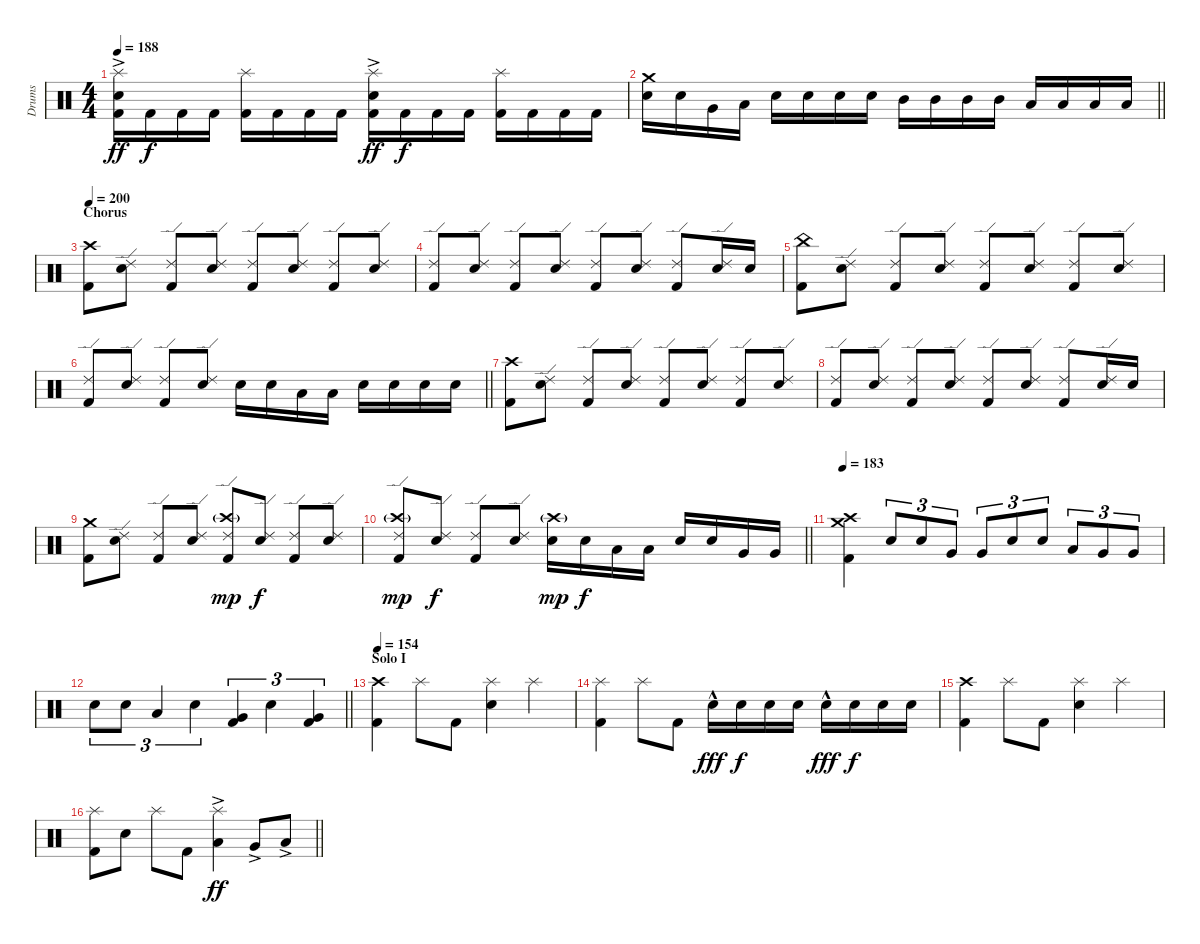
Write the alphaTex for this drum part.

\track ("Drums" "Drums") {instrument percussion}
\staff {score}
\articulation defaults
\ts (4 4)
\tempo 188
\clef neutral
\ks c
("Kick (hit) 2" "Snare (hit) 2"{ac} "Splash (hit)").16{dy ff} "Kick (hit) 2".16{dy f} "Kick (hit) 2".16 "Kick (hit) 2".16 ("Kick (hit) 2" "Splash (hit)").16 "Kick (hit) 2".16 "Kick (hit) 2".16 "Kick (hit) 2".16 ("Kick (hit) 2" "Snare (hit) 2"{ac} "Splash (hit)").16{dy ff} "Kick (hit) 2".16{dy f} "Kick (hit) 2".16 "Kick (hit) 2".16 ("Kick (hit) 2" "Splash (hit)").16 "Kick (hit) 2".16 "Kick (hit) 2".16 "Kick (hit) 2".16 |
\barLineRight lightlight
("Snare (hit) 2" "Crash medium (hit)").16 "Snare (hit) 2".16 "Very Low Tom (hit)".16 "Low Floor Tom (hit)".16 "Snare (hit) 2".16 "Snare (hit) 2".16 "Snare (hit) 2".16 "Snare (hit) 2".16 "Mid Tom (hit)".16 "Mid Tom (hit)".16 "Mid Tom (hit)".16 "Mid Tom (hit)".16 "Low Tom (hit)".16 "Low Tom (hit)".16 "Low Tom (hit)".16 "Low Tom (hit)".16 |
\section ("" "Chorus")
\tempo 200
("Kick (hit) 2" "Crash high (hit)").8 ("Snare (hit) 2" "Ride (edge) 2").8 ("Kick (hit) 2" "Ride (edge) 2").8 ("Snare (hit) 2" "Ride (edge) 2").8 ("Kick (hit) 2" "Ride (edge) 2").8 ("Snare (hit) 2" "Ride (edge) 2").8 ("Kick (hit) 2" "Ride (edge) 2").8 ("Snare (hit) 2" "Ride (edge) 2").8 |
("Kick (hit) 2" "Ride (edge) 2").8 ("Snare (hit) 2" "Ride (edge) 2").8 ("Kick (hit) 2" "Ride (edge) 2").8 ("Snare (hit) 2" "Ride (edge) 2").8 ("Kick (hit) 2" "Ride (edge) 2").8 ("Snare (hit) 2" "Ride (edge) 2").8 ("Kick (hit) 2" "Ride (edge) 2").8 ("Snare (hit) 2" "Ride (edge) 2").16 "Snare (hit) 2".16 |
("Kick (hit) 2" "China (hit)").8 ("Snare (hit) 2" "Ride (edge) 2").8 ("Kick (hit) 2" "Ride (edge) 2").8 ("Snare (hit) 2" "Ride (edge) 2").8 ("Kick (hit) 2" "Ride (edge) 2").8 ("Snare (hit) 2" "Ride (edge) 2").8 ("Kick (hit) 2" "Ride (edge) 2").8 ("Snare (hit) 2" "Ride (edge) 2").8 |
\barLineRight lightlight
("Kick (hit) 2" "Ride (edge) 2").8 ("Snare (hit) 2" "Ride (edge) 2").8 ("Kick (hit) 2" "Ride (edge) 2").8 ("Snare (hit) 2" "Ride (edge) 2").8 "Snare (hit) 2".16 "Snare (hit) 2".16 "Low Tom (hit)".16 "Low Tom (hit)".16 "Snare (hit) 2".16 "Snare (hit) 2".16 "Snare (hit) 2".16 "Snare (hit) 2".16 |
\section ("" "")
("Kick (hit) 2" "Crash high (hit)").8 ("Snare (hit) 2" "Ride (edge) 2").8 ("Kick (hit) 2" "Ride (edge) 2").8 ("Snare (hit) 2" "Ride (edge) 2").8 ("Kick (hit) 2" "Ride (edge) 2").8 ("Snare (hit) 2" "Ride (edge) 2").8 ("Kick (hit) 2" "Ride (edge) 2").8 ("Snare (hit) 2" "Ride (edge) 2").8 |
("Kick (hit) 2" "Ride (edge) 2").8 ("Snare (hit) 2" "Ride (edge) 2").8 ("Kick (hit) 2" "Ride (edge) 2").8 ("Snare (hit) 2" "Ride (edge) 2").8 ("Kick (hit) 2" "Ride (edge) 2").8 ("Snare (hit) 2" "Ride (edge) 2").8 ("Kick (hit) 2" "Ride (edge) 2").8 ("Snare (hit) 2" "Ride (edge) 2").16 "Snare (hit) 2".16 |
("Kick (hit) 2" "Crash medium (hit)").8 ("Snare (hit) 2" "Ride (edge) 2").8 ("Kick (hit) 2" "Ride (edge) 2").8 ("Snare (hit) 2" "Ride (edge) 2").8 ("Kick (hit) 2" "Ride (edge) 2" "Crash high (hit)"{g}).8{dy mp} ("Snare (hit) 2" "Ride (edge) 2").8{dy f} ("Kick (hit) 2" "Ride (edge) 2").8 ("Snare (hit) 2" "Ride (edge) 2").8 |
\barLineRight lightlight
("Kick (hit) 2" "Ride (edge) 2" "Crash high (hit)"{g}).8{dy mp} ("Snare (hit) 2" "Ride (edge) 2").8{dy f} ("Kick (hit) 2" "Ride (edge) 2").8 ("Snare (hit) 2" "Ride (edge) 2").8 ("Snare (hit) 2" "Crash high (hit)"{g}).16{dy mp} "Snare (hit) 2".16{dy f} "Low Tom (hit)".16 "Low Tom (hit)".16 "Snare (hit) 2".16 "Snare (hit) 2".16 "Very Low Tom (hit)".16 "Very Low Tom (hit)".16 |
\section ("" "")
\tempo 183
("Kick (hit) 2" "Crash medium (hit)" "Crash high (hit)").4{volume 16} "Snare (hit) 2".8{tu (3 2)} "Snare (hit) 2".8{tu (3 2)} "Very Low Tom (hit)".8{tu (3 2)} "Very Low Tom (hit)".8{tu (3 2)} "Snare (hit) 2".8{tu (3 2)} "Snare (hit) 2".8{tu (3 2)} "Low Tom (hit)".8{tu (3 2)} "Very Low Tom (hit)".8{tu (3 2)} "Very Low Tom (hit)".8{tu (3 2)} |
\barLineRight lightlight "Snare (hit) 2".8{tu (3 2)} "Snare (hit) 2".8{tu (3 2)} "Low Floor Tom (hit)".4{tu (3 2)} "Snare (hit) 2".4{tu (3 2)}
("Kick (hit) 2" "Very Low Tom (hit)").4{tu (3 2)} "Snare (hit) 2".4{tu (3 2)} ("Kick (hit) 2" "Very Low Tom (hit)").4{tu (3 2)} |
\section ("" "Solo I")
\tempo 154
("Kick (hit) 2" "Crash high (hit)").4 "Splash (hit)".8 "Kick (hit) 2".8 ("Snare (hit) 2" "Splash (hit)").4 "Splash (hit)".4 |
("Kick (hit) 2" "Splash (hit)").4 "Splash (hit)".8 "Kick (hit) 2".8 "Snare (hit) 2"{hac}.16{dy fff} "Snare (hit) 2".16{dy f} "Snare (hit) 2".16 "Snare (hit) 2".16 "Snare (hit) 2"{hac}.16{dy fff} "Snare (hit) 2".16{dy f} "Snare (hit) 2".16 "Snare (hit) 2".16 |
("Kick (hit) 2" "Crash high (hit)").4 "Splash (hit)".8 "Kick (hit) 2".8 ("Snare (hit) 2" "Splash (hit)").4 "Splash (hit)".4 |
\barLineRight lightlight
("Kick (hit) 2" "Splash (hit)").8 "Snare (hit) 2".8 "Splash (hit)".8 "Kick (hit) 2".8 ("Low Tom (hit)"{ac} "Splash (hit)").4{dy ff} "Very Low Tom (hit)"{ac}.8 "Low Floor Tom (hit)"{ac}.8
